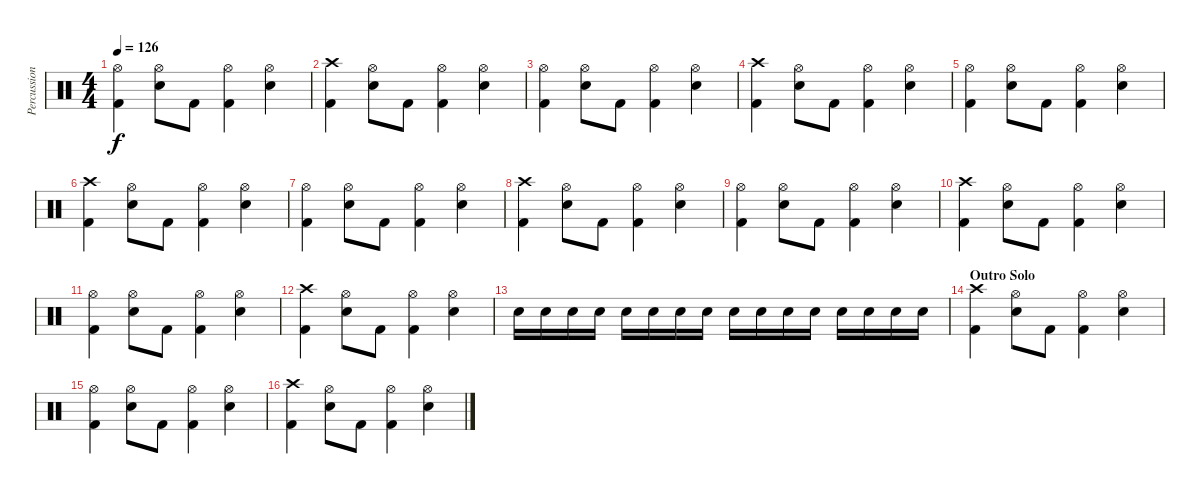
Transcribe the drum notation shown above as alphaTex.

\track ("Percussion" "Percussion") {instrument percussion}
\staff {score}
\articulation defaults
\ts (4 4)
\tempo 126
\clef neutral
\ks c
("Hi-Hat (open)" "Kick (hit) 2").4{dy f} ("Hi-Hat (open)" "Snare (hit) 2").8 "Kick (hit) 2".8 ("Hi-Hat (open)" "Kick (hit) 2").4 ("Hi-Hat (open)" "Snare (hit) 2").4 |
("Crash high (hit)" "Kick (hit) 2").4 ("Hi-Hat (open)" "Snare (hit) 2").8 "Kick (hit) 2".8 ("Hi-Hat (open)" "Kick (hit) 2").4 ("Hi-Hat (open)" "Snare (hit) 2").4 |
("Hi-Hat (open)" "Kick (hit) 2").4 ("Hi-Hat (open)" "Snare (hit) 2").8 "Kick (hit) 2".8 ("Hi-Hat (open)" "Kick (hit) 2").4 ("Hi-Hat (open)" "Snare (hit) 2").4 |
("Crash high (hit)" "Kick (hit) 2").4 ("Hi-Hat (open)" "Snare (hit) 2").8 "Kick (hit) 2".8 ("Hi-Hat (open)" "Kick (hit) 2").4 ("Hi-Hat (open)" "Snare (hit) 2").4 |
("Hi-Hat (open)" "Kick (hit) 2").4 ("Hi-Hat (open)" "Snare (hit) 2").8 "Kick (hit) 2".8 ("Hi-Hat (open)" "Kick (hit) 2").4 ("Hi-Hat (open)" "Snare (hit) 2").4 |
("Crash high (hit)" "Kick (hit) 2").4 ("Hi-Hat (open)" "Snare (hit) 2").8 "Kick (hit) 2".8 ("Hi-Hat (open)" "Kick (hit) 2").4 ("Hi-Hat (open)" "Snare (hit) 2").4 |
("Hi-Hat (open)" "Kick (hit) 2").4 ("Hi-Hat (open)" "Snare (hit) 2").8 "Kick (hit) 2".8 ("Hi-Hat (open)" "Kick (hit) 2").4 ("Hi-Hat (open)" "Snare (hit) 2").4 |
("Crash high (hit)" "Kick (hit) 2").4 ("Hi-Hat (open)" "Snare (hit) 2").8 "Kick (hit) 2".8 ("Hi-Hat (open)" "Kick (hit) 2").4 ("Hi-Hat (open)" "Snare (hit) 2").4 |
("Hi-Hat (open)" "Kick (hit) 2").4 ("Hi-Hat (open)" "Snare (hit) 2").8 "Kick (hit) 2".8 ("Hi-Hat (open)" "Kick (hit) 2").4 ("Hi-Hat (open)" "Snare (hit) 2").4 |
("Crash high (hit)" "Kick (hit) 2").4 ("Hi-Hat (open)" "Snare (hit) 2").8 "Kick (hit) 2".8 ("Hi-Hat (open)" "Kick (hit) 2").4 ("Hi-Hat (open)" "Snare (hit) 2").4 |
("Hi-Hat (open)" "Kick (hit) 2").4 ("Hi-Hat (open)" "Snare (hit) 2").8 "Kick (hit) 2".8 ("Hi-Hat (open)" "Kick (hit) 2").4 ("Hi-Hat (open)" "Snare (hit) 2").4 |
("Crash high (hit)" "Kick (hit) 2").4 ("Hi-Hat (open)" "Snare (hit) 2").8 "Kick (hit) 2".8 ("Hi-Hat (open)" "Kick (hit) 2").4 ("Hi-Hat (open)" "Snare (hit) 2").4 |
"Snare (hit) 2".16 "Snare (hit) 2".16 "Snare (hit) 2".16 "Snare (hit) 2".16 "Snare (hit) 2".16 "Snare (hit) 2".16 "Snare (hit) 2".16 "Snare (hit) 2".16 "Snare (hit) 2".16 "Snare (hit) 2".16 "Snare (hit) 2".16 "Snare (hit) 2".16 "Snare (hit) 2".16 "Snare (hit) 2".16 "Snare (hit) 2".16 "Snare (hit) 2".16 |
\section ("" "Outro Solo")
("Crash high (hit)" "Kick (hit) 2").4 ("Hi-Hat (open)" "Snare (hit) 2").8 "Kick (hit) 2".8 ("Hi-Hat (open)" "Kick (hit) 2").4 ("Hi-Hat (open)" "Snare (hit) 2").4 |
("Hi-Hat (open)" "Kick (hit) 2").4 ("Hi-Hat (open)" "Snare (hit) 2").8 "Kick (hit) 2".8 ("Hi-Hat (open)" "Kick (hit) 2").4 ("Hi-Hat (open)" "Snare (hit) 2").4 |
("Crash high (hit)" "Kick (hit) 2").4 ("Hi-Hat (open)" "Snare (hit) 2").8 "Kick (hit) 2".8 ("Hi-Hat (open)" "Kick (hit) 2").4 ("Hi-Hat (open)" "Snare (hit) 2").4
